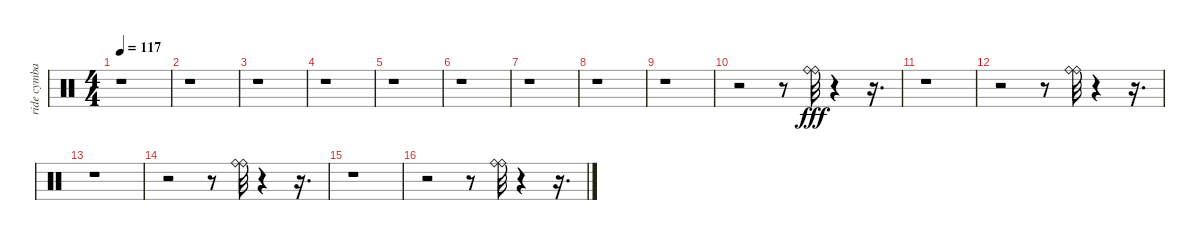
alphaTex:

\track ("ride cymbal" "ride cymba") {instrument percussion}
\staff {score}
\articulation defaults
\ts (4 4)
\tempo 117
\clef neutral
\ks c
r.1{dy fff} |
r.1 |
r.1 |
r.1 |
r.1 |
r.1 |
r.1 |
r.1 |
r.1 |
r.2 r.8 ("Ride (bell)" "Ride (bell)").32 r.4 r.16{d} |
r.1 |
r.2 r.8 ("Ride (bell)" "Ride (bell)").32 r.4 r.16{d} |
r.1 |
r.2 r.8 ("Ride (bell)" "Ride (bell)").32 r.4 r.16{d} |
r.1 |
r.2 r.8 ("Ride (bell)" "Ride (bell)").32 r.4 r.16{d}
